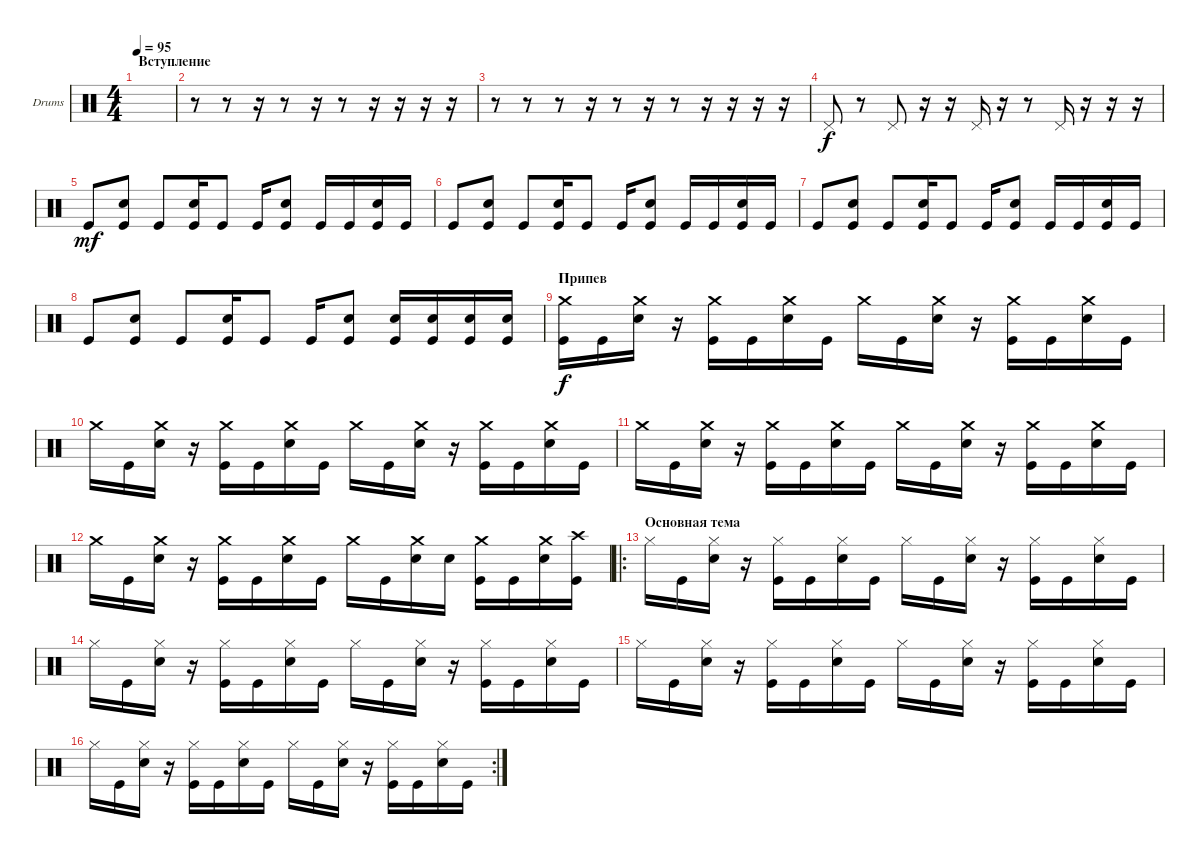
\defaultSystemsLayout 4
\bracketExtendMode groupsimilarinstruments
\firstSystemTrackNameOrientation horizontal
\otherSystemsTrackNameOrientation horizontal
\track ("Drumkit" "Drums") {instrument percussion}
\staff {score}
\articulation defaults
\ts (4 4)
\section ("" "Вступление")
\tempo 95
\clef neutral
\scale
0.474178
\ks c
|
\scale
0.262911 r.8 r.8 r.16 r.8 r.16 r.8 r.16 r.16 r.16 r.16 |
\scale
0.262911 r.8 r.8 r.8 r.16 r.8 r.16 r.8 r.16 r.16 r.16 r.16 |
\scale
0.333333 "Pedal Hi-Hat (hit)".8 r.8 "Pedal Hi-Hat (hit)".8 r.16 r.16 "Pedal Hi-Hat (hit)".16 r.16 r.8 "Pedal Hi-Hat (hit)".16 r.16 r.16 r.16 |
\scale
0.333333 "Kick (hit)".8{dy mf} ("Kick (hit)" "Snare (hit) 2").8 "Kick (hit)".8 ("Kick (hit)" "Snare (hit) 2").16 "Kick (hit)".8 "Kick (hit)".16 ("Kick (hit)" "Snare (hit) 2").8 "Kick (hit)".16 "Kick (hit)".16 ("Kick (hit)" "Snare (hit) 2").16 "Kick (hit)".16 |
\scale
0.333333 "Kick (hit)".8 ("Kick (hit)" "Snare (hit) 2").8 "Kick (hit)".8 ("Kick (hit)" "Snare (hit) 2").16 "Kick (hit)".8 "Kick (hit)".16 ("Kick (hit)" "Snare (hit) 2").8 "Kick (hit)".16 "Kick (hit)".16 ("Kick (hit)" "Snare (hit) 2").16 "Kick (hit)".16 |
\scale
0.333333 "Kick (hit)".8 ("Kick (hit)" "Snare (hit) 2").8 "Kick (hit)".8 ("Kick (hit)" "Snare (hit) 2").16 "Kick (hit)".8 "Kick (hit)".16 ("Kick (hit)" "Snare (hit) 2").8 "Kick (hit)".16 "Kick (hit)".16 ("Kick (hit)" "Snare (hit) 2").16 "Kick (hit)".16 |
\scale
0.333333 "Kick (hit)".8 ("Kick (hit)" "Snare (hit) 2").8 "Kick (hit)".8 ("Kick (hit)" "Snare (hit) 2").16 "Kick (hit)".8 "Kick (hit)".16 ("Kick (hit)" "Snare (hit) 2").8 ("Kick (hit)" "Snare (hit) 2").16 ("Kick (hit)" "Snare (hit) 2").16 ("Kick (hit)" "Snare (hit) 2").16 ("Kick (hit)" "Snare (hit) 2").16 |
\section ("" "Припев")
\scale
0.333333 ("Kick (hit)" "Crash medium (hit)").16{dy f} "Kick (hit)".16 ("Crash medium (hit)" "Snare (hit) 2").16 r.16 ("Crash medium (hit)" "Kick (hit)").16 "Kick (hit)".16 ("Crash medium (hit)" "Snare (hit) 2").16 "Kick (hit)".16 "Crash medium (hit)".16 "Kick (hit)".16 ("Crash medium (hit)" "Snare (hit) 2").16 r.16 ("Crash medium (hit)" "Kick (hit)").16 "Kick (hit)".16 ("Crash medium (hit)" "Snare (hit) 2").16 "Kick (hit)".16 |
\scale
0.333333 "Crash medium (hit)".16 "Kick (hit)".16 ("Crash medium (hit)" "Snare (hit) 2").16 r.16 ("Crash medium (hit)" "Kick (hit)").16 "Kick (hit)".16 ("Crash medium (hit)" "Snare (hit) 2").16 "Kick (hit)".16 "Crash medium (hit)".16 "Kick (hit)".16 ("Crash medium (hit)" "Snare (hit) 2").16 r.16 ("Crash medium (hit)" "Kick (hit)").16 "Kick (hit)".16 ("Crash medium (hit)" "Snare (hit) 2").16 "Kick (hit)".16 |
\scale
0.333333 "Crash medium (hit)".16 "Kick (hit)".16 ("Crash medium (hit)" "Snare (hit) 2").16 r.16 ("Crash medium (hit)" "Kick (hit)").16 "Kick (hit)".16 ("Crash medium (hit)" "Snare (hit) 2").16 "Kick (hit)".16 "Crash medium (hit)".16 "Kick (hit)".16 ("Crash medium (hit)" "Snare (hit) 2").16 r.16 ("Crash medium (hit)" "Kick (hit)").16 "Kick (hit)".16 ("Crash medium (hit)" "Snare (hit) 2").16 "Kick (hit)".16 |
\scale
0.333333 "Crash medium (hit)".16 "Kick (hit)".16 ("Crash medium (hit)" "Snare (hit) 2").16 r.16 ("Crash medium (hit)" "Kick (hit)").16 "Kick (hit)".16 ("Crash medium (hit)" "Snare (hit) 2").16 "Kick (hit)".16 "Crash medium (hit)".16 "Kick (hit)".16 ("Crash medium (hit)" "Snare (hit) 2").16 "Snare (hit) 2".16 ("Crash medium (hit)" "Kick (hit)").16 "Kick (hit)".16 ("Crash medium (hit)" "Snare (hit) 2").16 ("Crash high (hit)" "Kick (hit)").16 |
\ro
\section ("" "Основная тема")
\scale
0.377778 "Hi-Hat (closed)".16 "Kick (hit)".16 ("Hi-Hat (closed)" "Snare (hit) 2").16 r.16 ("Hi-Hat (closed)" "Kick (hit)").16 "Kick (hit)".16 ("Hi-Hat (closed)" "Snare (hit) 2").16 "Kick (hit)".16 "Hi-Hat (closed)".16 "Kick (hit)".16 ("Hi-Hat (closed)" "Snare (hit) 2").16 r.16 ("Hi-Hat (closed)" "Kick (hit)").16 "Kick (hit)".16 ("Hi-Hat (closed)" "Snare (hit) 2").16 "Kick (hit)".16 |
\scale
0.311111 "Hi-Hat (closed)".16 "Kick (hit)".16 ("Hi-Hat (closed)" "Snare (hit) 2").16 r.16 ("Hi-Hat (closed)" "Kick (hit)").16 "Kick (hit)".16 ("Hi-Hat (closed)" "Snare (hit) 2").16 "Kick (hit)".16 "Hi-Hat (closed)".16 "Kick (hit)".16 ("Hi-Hat (closed)" "Snare (hit) 2").16 r.16 ("Hi-Hat (closed)" "Kick (hit)").16 "Kick (hit)".16 ("Hi-Hat (closed)" "Snare (hit) 2").16 "Kick (hit)".16 |
\scale
0.311111 "Hi-Hat (closed)".16 "Kick (hit)".16 ("Hi-Hat (closed)" "Snare (hit) 2").16 r.16 ("Hi-Hat (closed)" "Kick (hit)").16 "Kick (hit)".16 ("Hi-Hat (closed)" "Snare (hit) 2").16 "Kick (hit)".16 "Hi-Hat (closed)".16 "Kick (hit)".16 ("Hi-Hat (closed)" "Snare (hit) 2").16 r.16 ("Hi-Hat (closed)" "Kick (hit)").16 "Kick (hit)".16 ("Hi-Hat (closed)" "Snare (hit) 2").16 "Kick (hit)".16 |
\rc 2
\scale
0.333333 "Hi-Hat (closed)".16 "Kick (hit)".16 ("Hi-Hat (closed)" "Snare (hit) 2").16 r.16 ("Hi-Hat (closed)" "Kick (hit)").16 "Kick (hit)".16 ("Hi-Hat (closed)" "Snare (hit) 2").16 "Kick (hit)".16 "Hi-Hat (closed)".16 "Kick (hit)".16 ("Hi-Hat (closed)" "Snare (hit) 2").16 r.16 ("Hi-Hat (closed)" "Kick (hit)").16 "Kick (hit)".16 ("Hi-Hat (closed)" "Snare (hit) 2").16 "Kick (hit)".16
